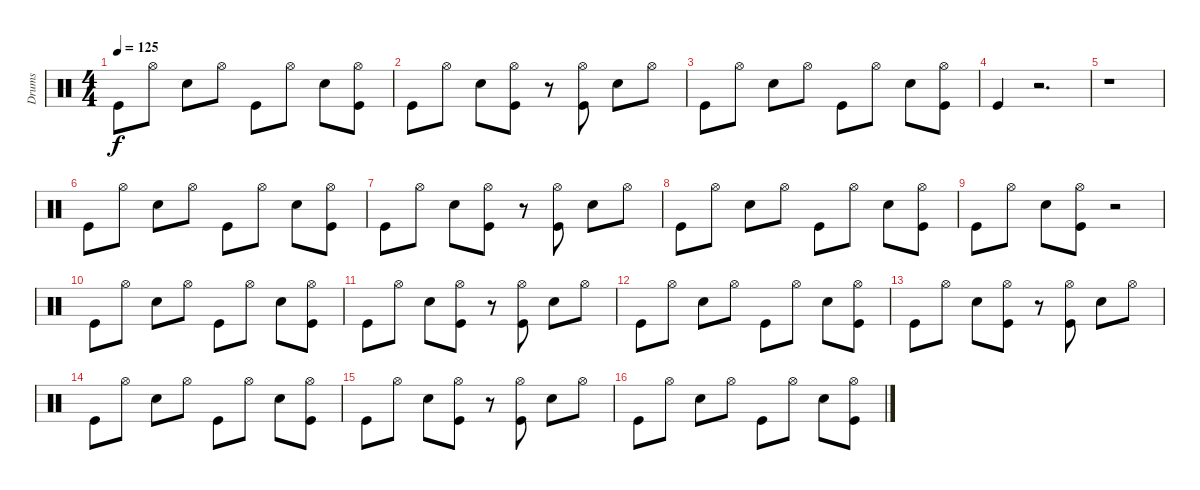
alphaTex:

\track ("Drums" "Drums") {instrument percussion}
\staff {score}
\articulation defaults
\ts (4 4)
\tempo 125
\clef neutral
\ks c "Kick (hit)".8{dy f} "Hi-Hat (open)".8 "Electric Snare (hit)".8 "Hi-Hat (open)".8 "Kick (hit)".8 "Hi-Hat (open)".8 "Electric Snare (hit)".8
("Hi-Hat (open)" "Kick (hit)").8 |
"Kick (hit)".8 "Hi-Hat (open)".8 "Electric Snare (hit)".8 ("Hi-Hat (open)" "Kick (hit)").8 r.8 ("Hi-Hat (open)" "Kick (hit)").8 "Electric Snare (hit)".8 "Hi-Hat (open)".8 |
"Kick (hit)".8 "Hi-Hat (open)".8 "Electric Snare (hit)".8 "Hi-Hat (open)".8 "Kick (hit)".8 "Hi-Hat (open)".8 "Electric Snare (hit)".8 ("Hi-Hat (open)" "Kick (hit)").8 |
"Kick (hit)".4 r.2{d} |
r.1 |
"Kick (hit)".8 "Hi-Hat (open)".8 "Electric Snare (hit)".8 "Hi-Hat (open)".8 "Kick (hit)".8 "Hi-Hat (open)".8 "Electric Snare (hit)".8 ("Hi-Hat (open)" "Kick (hit)").8 |
"Kick (hit)".8 "Hi-Hat (open)".8 "Electric Snare (hit)".8 ("Hi-Hat (open)" "Kick (hit)").8 r.8 ("Hi-Hat (open)" "Kick (hit)").8 "Electric Snare (hit)".8 "Hi-Hat (open)".8 |
"Kick (hit)".8 "Hi-Hat (open)".8 "Electric Snare (hit)".8 "Hi-Hat (open)".8 "Kick (hit)".8 "Hi-Hat (open)".8 "Electric Snare (hit)".8 ("Hi-Hat (open)" "Kick (hit)").8 |
"Kick (hit)".8 "Hi-Hat (open)".8 "Electric Snare (hit)".8 ("Hi-Hat (open)" "Kick (hit)").8 r.2 |
"Kick (hit)".8 "Hi-Hat (open)".8 "Electric Snare (hit)".8 "Hi-Hat (open)".8 "Kick (hit)".8 "Hi-Hat (open)".8 "Electric Snare (hit)".8 ("Hi-Hat (open)" "Kick (hit)").8 |
"Kick (hit)".8 "Hi-Hat (open)".8 "Electric Snare (hit)".8 ("Hi-Hat (open)" "Kick (hit)").8 r.8 ("Hi-Hat (open)" "Kick (hit)").8 "Electric Snare (hit)".8 "Hi-Hat (open)".8 |
"Kick (hit)".8 "Hi-Hat (open)".8 "Electric Snare (hit)".8 "Hi-Hat (open)".8 "Kick (hit)".8 "Hi-Hat (open)".8 "Electric Snare (hit)".8 ("Hi-Hat (open)" "Kick (hit)").8 |
"Kick (hit)".8 "Hi-Hat (open)".8 "Electric Snare (hit)".8 ("Hi-Hat (open)" "Kick (hit)").8 r.8 ("Hi-Hat (open)" "Kick (hit)").8 "Electric Snare (hit)".8 "Hi-Hat (open)".8 |
"Kick (hit)".8 "Hi-Hat (open)".8 "Electric Snare (hit)".8 "Hi-Hat (open)".8 "Kick (hit)".8 "Hi-Hat (open)".8 "Electric Snare (hit)".8 ("Hi-Hat (open)" "Kick (hit)").8 |
"Kick (hit)".8 "Hi-Hat (open)".8 "Electric Snare (hit)".8 ("Hi-Hat (open)" "Kick (hit)").8 r.8 ("Hi-Hat (open)" "Kick (hit)").8 "Electric Snare (hit)".8 "Hi-Hat (open)".8 |
"Kick (hit)".8 "Hi-Hat (open)".8 "Electric Snare (hit)".8 "Hi-Hat (open)".8 "Kick (hit)".8 "Hi-Hat (open)".8 "Electric Snare (hit)".8 ("Hi-Hat (open)" "Kick (hit)").8
